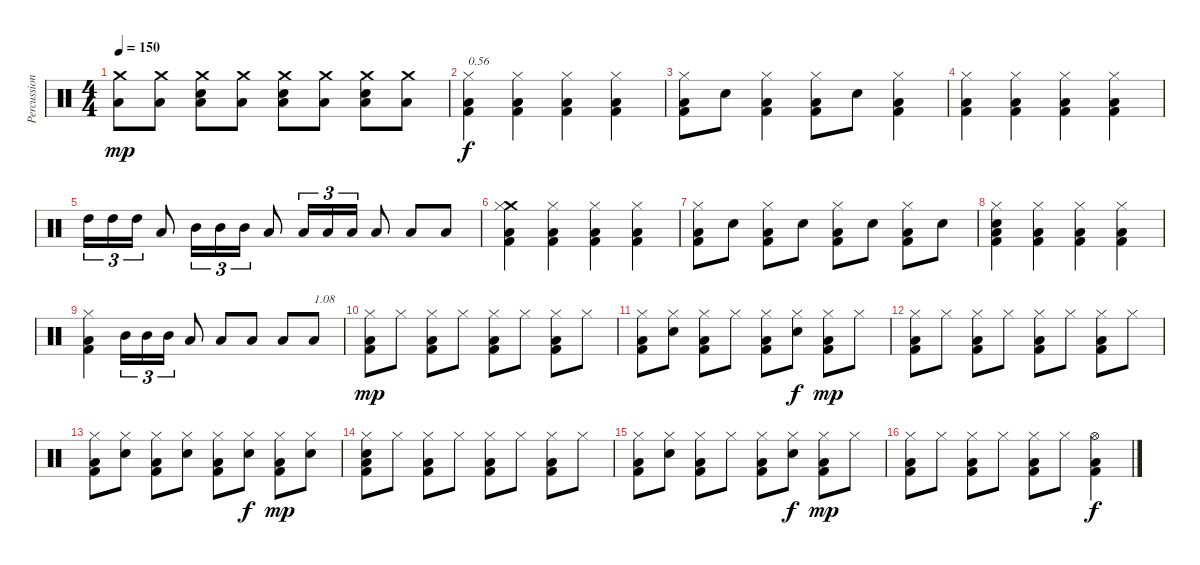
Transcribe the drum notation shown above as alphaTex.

\track ("Percussions" "Percussion") {instrument percussion}
\staff {score}
\articulation defaults
\ts (4 4)
\tempo 150
\clef neutral
\ks c
("Low Floor Tom (hit)" "Crash medium (hit)").8{dy mp} ("Low Floor Tom (hit)" "Crash medium (hit)").8 ("Low Floor Tom (hit)" "Snare (hit) 2" "Crash medium (hit)").8 ("Low Floor Tom (hit)" "Crash medium (hit)").8 ("Low Floor Tom (hit)" "Snare (hit) 2" "Crash medium (hit)").8 ("Low Floor Tom (hit)" "Crash medium (hit)").8 ("Low Floor Tom (hit)" "Snare (hit) 2" "Crash medium (hit)").8 ("Low Floor Tom (hit)" "Crash medium (hit)").8 |
("Kick (hit) 2" "Low Floor Tom (hit)" "Hi-Hat (closed)").4{txt "0.56" dy f} ("Kick (hit) 2" "Low Floor Tom (hit)" "Hi-Hat (closed)").4 ("Kick (hit) 2" "Low Floor Tom (hit)" "Hi-Hat (closed)").4 ("Kick (hit) 2" "Low Floor Tom (hit)" "Hi-Hat (closed)").4 |
("Kick (hit) 2" "Low Floor Tom (hit)" "Hi-Hat (closed)").8 "Snare (hit) 2".8 ("Kick (hit) 2" "Low Floor Tom (hit)" "Hi-Hat (closed)").4 ("Kick (hit) 2" "Low Floor Tom (hit)" "Hi-Hat (closed)").8 "Snare (hit) 2".8 ("Kick (hit) 2" "Low Floor Tom (hit)" "Hi-Hat (closed)").4 |
("Kick (hit) 2" "Low Floor Tom (hit)" "Hi-Hat (closed)").4 ("Kick (hit) 2" "Low Floor Tom (hit)" "Hi-Hat (closed)").4 ("Kick (hit) 2" "Low Floor Tom (hit)" "Hi-Hat (closed)").4 ("Kick (hit) 2" "Low Floor Tom (hit)" "Hi-Hat (closed)").4 |
"High Tom (hit)".16{tu (3 2)} "High Tom (hit)".16{tu (3 2)} "High Tom (hit)".16{tu (3 2)} "Low Tom (hit)".8 "Mid Tom (hit)".16{tu (3 2)} "Mid Tom (hit)".16{tu (3 2)} "Mid Tom (hit)".16{tu (3 2)} "Low Tom (hit)".8 "Low Tom (hit)".16{tu (3 2)} "Low Tom (hit)".16{tu (3 2)} "Low Tom (hit)".16{tu (3 2)} "Low Tom (hit)".8 "Low Tom (hit)".8 "Low Tom (hit)".8 |
("Kick (hit) 2" "Low Floor Tom (hit)" "Crash medium (hit)" "Hi-Hat (closed)").4 ("Kick (hit) 2" "Low Floor Tom (hit)" "Hi-Hat (closed)").4 ("Kick (hit) 2" "Low Floor Tom (hit)" "Hi-Hat (closed)").4 ("Kick (hit) 2" "Low Floor Tom (hit)" "Hi-Hat (closed)").4 |
("Kick (hit) 2" "Low Floor Tom (hit)" "Hi-Hat (closed)").8 "Snare (hit) 2".8 ("Kick (hit) 2" "Low Floor Tom (hit)" "Hi-Hat (closed)").8 "Snare (hit) 2".8 ("Kick (hit) 2" "Low Floor Tom (hit)" "Hi-Hat (closed)").8 "Snare (hit) 2".8 ("Kick (hit) 2" "Low Floor Tom (hit)" "Hi-Hat (closed)").8 "Snare (hit) 2".8 |
("Kick (hit) 2" "Low Floor Tom (hit)" "Snare (hit) 2" "Hi-Hat (closed)").4 ("Kick (hit) 2" "Low Floor Tom (hit)" "Hi-Hat (closed)").4 ("Kick (hit) 2" "Low Floor Tom (hit)" "Hi-Hat (closed)").4 ("Kick (hit) 2" "Low Floor Tom (hit)" "Hi-Hat (closed)").4 |
("Kick (hit) 2" "Low Floor Tom (hit)" "Hi-Hat (closed)").4 "Mid Tom (hit)".16{tu (3 2)} "Mid Tom (hit)".16{tu (3 2)} "Mid Tom (hit)".16{tu (3 2)} "Low Tom (hit)".8 "Low Tom (hit)".8 "Low Tom (hit)".8 "Low Tom (hit)".8 "Low Tom (hit)".8{txt "1.08"} |
("Kick (hit) 2" "Low Floor Tom (hit)" "Hi-Hat (closed)").8{dy mp} "Hi-Hat (closed)".8 ("Kick (hit) 2" "Low Floor Tom (hit)" "Hi-Hat (closed)").8 "Hi-Hat (closed)".8 ("Kick (hit) 2" "Low Floor Tom (hit)" "Hi-Hat (closed)").8 "Hi-Hat (closed)".8 ("Kick (hit) 2" "Low Floor Tom (hit)" "Hi-Hat (closed)").8 "Hi-Hat (closed)".8 |
("Kick (hit) 2" "Low Floor Tom (hit)" "Hi-Hat (closed)").8 ("Snare (hit) 2" "Hi-Hat (closed)").8 ("Kick (hit) 2" "Low Floor Tom (hit)" "Hi-Hat (closed)").8 "Hi-Hat (closed)".8 ("Kick (hit) 2" "Low Floor Tom (hit)" "Hi-Hat (closed)").8 ("Snare (hit) 2" "Hi-Hat (closed)").8{dy f} ("Kick (hit) 2" "Low Floor Tom (hit)" "Hi-Hat (closed)").8{dy mp} "Hi-Hat (closed)".8 |
("Kick (hit) 2" "Low Floor Tom (hit)" "Hi-Hat (closed)").8 "Hi-Hat (closed)".8 ("Kick (hit) 2" "Low Floor Tom (hit)" "Hi-Hat (closed)").8 "Hi-Hat (closed)".8 ("Kick (hit) 2" "Low Floor Tom (hit)" "Hi-Hat (closed)").8 "Hi-Hat (closed)".8 ("Kick (hit) 2" "Low Floor Tom (hit)" "Hi-Hat (closed)").8 "Hi-Hat (closed)".8 |
("Kick (hit) 2" "Low Floor Tom (hit)" "Hi-Hat (closed)").8 ("Snare (hit) 2" "Hi-Hat (closed)").8 ("Kick (hit) 2" "Low Floor Tom (hit)" "Hi-Hat (closed)").8 ("Snare (hit) 2" "Hi-Hat (closed)").8 ("Kick (hit) 2" "Low Floor Tom (hit)" "Hi-Hat (closed)").8 ("Snare (hit) 2" "Hi-Hat (closed)").8{dy f} ("Kick (hit) 2" "Low Floor Tom (hit)" "Hi-Hat (closed)").8{dy mp} ("Snare (hit) 2" "Hi-Hat (closed)").8 |
("Kick (hit) 2" "Low Floor Tom (hit)" "Snare (hit) 2" "Hi-Hat (closed)").8 "Hi-Hat (closed)".8 ("Kick (hit) 2" "Low Floor Tom (hit)" "Hi-Hat (closed)").8 "Hi-Hat (closed)".8 ("Kick (hit) 2" "Low Floor Tom (hit)" "Hi-Hat (closed)").8 "Hi-Hat (closed)".8 ("Kick (hit) 2" "Low Floor Tom (hit)" "Hi-Hat (closed)").8 "Hi-Hat (closed)".8 |
("Kick (hit) 2" "Low Floor Tom (hit)" "Hi-Hat (closed)").8 ("Snare (hit) 2" "Hi-Hat (closed)").8 ("Kick (hit) 2" "Low Floor Tom (hit)" "Hi-Hat (closed)").8 "Hi-Hat (closed)".8 ("Kick (hit) 2" "Low Floor Tom (hit)" "Hi-Hat (closed)").8 ("Snare (hit) 2" "Hi-Hat (closed)").8{dy f} ("Kick (hit) 2" "Low Floor Tom (hit)" "Hi-Hat (closed)").8{dy mp} "Hi-Hat (closed)".8 |
("Kick (hit) 2" "Low Floor Tom (hit)" "Hi-Hat (closed)").8 "Hi-Hat (closed)".8 ("Kick (hit) 2" "Low Floor Tom (hit)" "Hi-Hat (closed)").8 "Hi-Hat (closed)".8 ("Kick (hit) 2" "Low Floor Tom (hit)" "Hi-Hat (closed)").8 "Hi-Hat (closed)".8 ("Kick (hit) 2" "Low Floor Tom (hit)" "Hi-Hat (open)").4{dy f}
